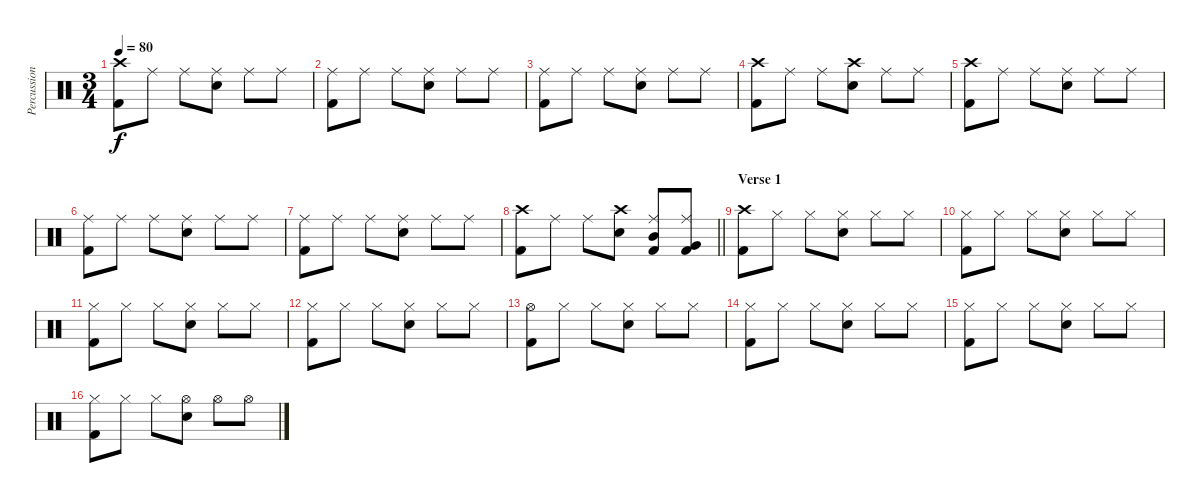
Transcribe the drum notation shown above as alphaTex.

\track ("Percussion" "Percussion") {instrument percussion}
\staff {score}
\articulation defaults
\ts (3 4)
\tempo 80
\clef neutral
\ks c
("Crash high (hit)" "Kick (hit) 2").8{dy f} "Ride (middle)".8 "Ride (middle)".8 ("Ride (middle)" "Snare (hit) 2").8 "Ride (middle)".8 "Ride (middle)".8 |
("Ride (middle)" "Kick (hit) 2").8 "Ride (middle)".8 "Ride (middle)".8 ("Ride (middle)" "Snare (hit) 2").8 "Ride (middle)".8 "Ride (middle)".8 |
("Ride (middle)" "Kick (hit) 2").8 "Ride (middle)".8 "Ride (middle)".8 ("Ride (middle)" "Snare (hit) 2").8 "Ride (middle)".8 "Ride (middle)".8 |
("Crash high (hit)" "Kick (hit) 2").8 "Ride (middle)".8 "Ride (middle)".8 ("Crash high (hit)" "Snare (hit) 2").8 "Ride (middle)".8 "Ride (middle)".8 |
("Crash high (hit)" "Kick (hit) 2").8 "Ride (middle)".8 "Ride (middle)".8 ("Ride (middle)" "Snare (hit) 2").8 "Ride (middle)".8 "Ride (middle)".8 |
("Ride (middle)" "Kick (hit) 2").8 "Ride (middle)".8 "Ride (middle)".8 ("Ride (middle)" "Snare (hit) 2").8 "Ride (middle)".8 "Ride (middle)".8 |
("Ride (middle)" "Kick (hit) 2").8 "Ride (middle)".8 "Ride (middle)".8 ("Ride (middle)" "Snare (hit) 2").8 "Ride (middle)".8 "Ride (middle)".8 |
\barLineRight lightlight
("Crash high (hit)" "Kick (hit) 2").8 "Ride (middle)".8 "Ride (middle)".8 ("Crash high (hit)" "Snare (hit) 2").8 ("Ride (middle)" "Mid Tom (hit)" "Kick (hit) 2").8 ("Ride (middle)" "Very Low Tom (hit)" "Kick (hit) 2").8 |
\section ("" "Verse 1")
("Crash high (hit)" "Kick (hit) 2").8 "Hi-Hat (closed)".8 "Hi-Hat (closed)".8 ("Hi-Hat (closed)" "Snare (hit) 2").8 "Hi-Hat (closed)".8 "Hi-Hat (closed)".8 |
("Hi-Hat (closed)" "Kick (hit) 2").8 "Hi-Hat (closed)".8 "Hi-Hat (closed)".8 ("Hi-Hat (closed)" "Snare (hit) 2").8 "Hi-Hat (closed)".8 "Hi-Hat (closed)".8 |
("Hi-Hat (closed)" "Kick (hit) 2").8 "Hi-Hat (closed)".8 "Hi-Hat (closed)".8 ("Hi-Hat (closed)" "Snare (hit) 2").8 "Hi-Hat (closed)".8 "Hi-Hat (closed)".8 |
("Hi-Hat (closed)" "Kick (hit) 2").8 "Hi-Hat (closed)".8 "Hi-Hat (closed)".8 ("Hi-Hat (closed)" "Snare (hit) 2").8 "Hi-Hat (closed)".8 "Hi-Hat (closed)".8 |
("Hi-Hat (open)" "Kick (hit) 2").8 "Hi-Hat (closed)".8 "Hi-Hat (closed)".8 ("Hi-Hat (closed)" "Snare (hit) 2").8 "Hi-Hat (closed)".8 "Hi-Hat (closed)".8 |
("Hi-Hat (closed)" "Kick (hit) 2").8 "Hi-Hat (closed)".8 "Hi-Hat (closed)".8 ("Hi-Hat (closed)" "Snare (hit) 2").8 "Hi-Hat (closed)".8 "Hi-Hat (closed)".8 |
("Hi-Hat (closed)" "Kick (hit) 2").8 "Hi-Hat (closed)".8 "Hi-Hat (closed)".8 ("Hi-Hat (closed)" "Snare (hit) 2").8 "Hi-Hat (closed)".8 "Hi-Hat (closed)".8 |
("Hi-Hat (closed)" "Kick (hit) 2").8 "Hi-Hat (closed)".8 "Hi-Hat (closed)".8 ("Hi-Hat (open)" "Snare (hit) 2").8 "Hi-Hat (open)".8 "Hi-Hat (open)".8
